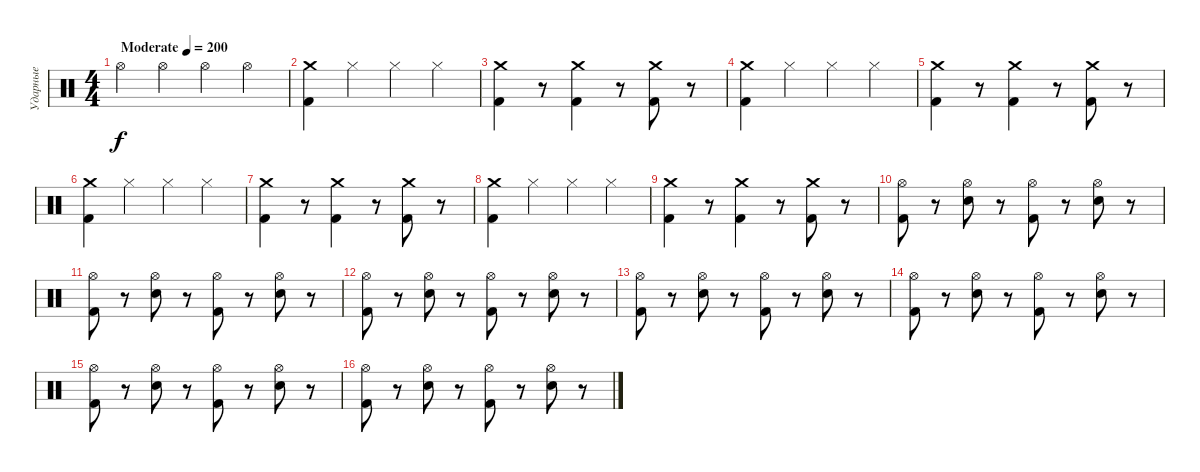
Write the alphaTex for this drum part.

\track ("Ударные" "Ударные") {instrument percussion}
\staff {score}
\articulation defaults
\ts (4 4)
\tempo (200 "Moderate")
\clef neutral
\ks c "Hi-Hat (open)".4{dy f} "Hi-Hat (open)".4 "Hi-Hat (open)".4 "Hi-Hat (open)".4
|
("Kick (hit) 2" "Crash medium (hit)").4 "Hi-Hat (closed)".4 "Hi-Hat (closed)".4 "Hi-Hat (closed)".4 |
("Crash medium (hit)" "Kick (hit) 2").4 r.8 ("Crash medium (hit)" "Kick (hit) 2").4 r.8 ("Crash medium (hit)" "Kick (hit) 2").8 r.8 |
("Kick (hit) 2" "Crash medium (hit)").4 "Hi-Hat (closed)".4 "Hi-Hat (closed)".4 "Hi-Hat (closed)".4 |
("Crash medium (hit)" "Kick (hit) 2").4 r.8 ("Crash medium (hit)" "Kick (hit) 2").4 r.8 ("Crash medium (hit)" "Kick (hit) 2").8 r.8 |
("Kick (hit) 2" "Crash medium (hit)").4 "Hi-Hat (closed)".4 "Hi-Hat (closed)".4 "Hi-Hat (closed)".4 |
("Crash medium (hit)" "Kick (hit) 2").4 r.8 ("Crash medium (hit)" "Kick (hit) 2").4 r.8 ("Crash medium (hit)" "Kick (hit) 2").8 r.8 |
("Kick (hit) 2" "Crash medium (hit)").4 "Hi-Hat (closed)".4 "Hi-Hat (closed)".4 "Hi-Hat (closed)".4 |
("Crash medium (hit)" "Kick (hit) 2").4 r.8 ("Crash medium (hit)" "Kick (hit) 2").4 r.8 ("Crash medium (hit)" "Kick (hit) 2").8 r.8 |
("Hi-Hat (open)" "Kick (hit) 2").8 r.8 ("Hi-Hat (open)" "Snare (hit) 2").8 r.8 ("Hi-Hat (open)" "Kick (hit) 2").8 r.8 ("Hi-Hat (open)" "Snare (hit) 2").8 r.8 |
("Hi-Hat (open)" "Kick (hit) 2").8 r.8 ("Hi-Hat (open)" "Snare (hit) 2").8 r.8 ("Hi-Hat (open)" "Kick (hit) 2").8 r.8 ("Hi-Hat (open)" "Snare (hit) 2").8 r.8 |
("Hi-Hat (open)" "Kick (hit) 2").8 r.8 ("Hi-Hat (open)" "Snare (hit) 2").8 r.8 ("Hi-Hat (open)" "Kick (hit) 2").8 r.8 ("Hi-Hat (open)" "Snare (hit) 2").8 r.8 |
("Hi-Hat (open)" "Kick (hit) 2").8 r.8 ("Hi-Hat (open)" "Snare (hit) 2").8 r.8 ("Hi-Hat (open)" "Kick (hit) 2").8 r.8 ("Hi-Hat (open)" "Snare (hit) 2").8 r.8 |
("Hi-Hat (open)" "Kick (hit) 2").8 r.8 ("Hi-Hat (open)" "Snare (hit) 2").8 r.8 ("Hi-Hat (open)" "Kick (hit) 2").8 r.8 ("Hi-Hat (open)" "Snare (hit) 2").8 r.8 |
("Hi-Hat (open)" "Kick (hit) 2").8 r.8 ("Hi-Hat (open)" "Snare (hit) 2").8 r.8 ("Hi-Hat (open)" "Kick (hit) 2").8 r.8 ("Hi-Hat (open)" "Snare (hit) 2").8 r.8 |
("Hi-Hat (open)" "Kick (hit) 2").8 r.8 ("Hi-Hat (open)" "Snare (hit) 2").8 r.8 ("Hi-Hat (open)" "Kick (hit) 2").8 r.8 ("Hi-Hat (open)" "Snare (hit) 2").8 r.8
